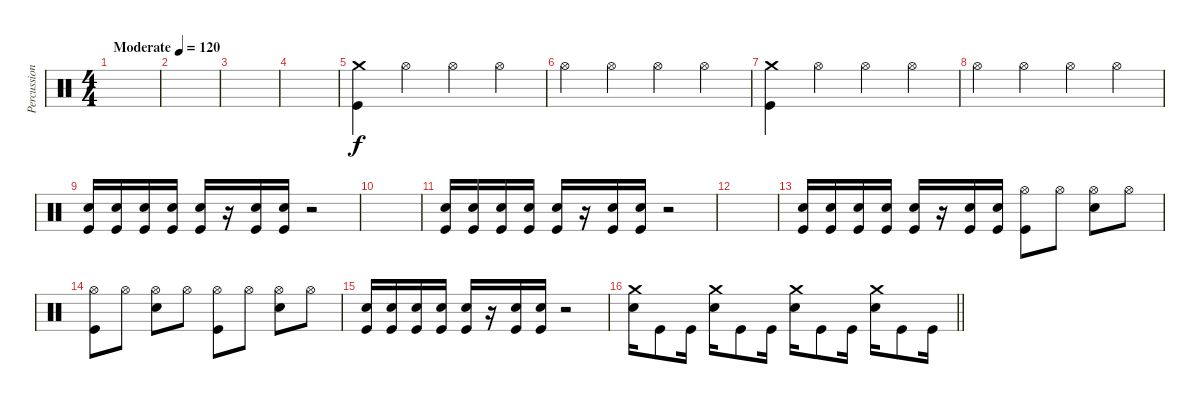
\track ("Percussion" "Percussion") {instrument percussion}
\staff {score}
\articulation defaults
\ts (4 4)
\tempo (120 "Moderate")
\clef neutral
\ks c
|
|
|
|
("Crash medium (hit)" "Kick (hit)").4 "Hi-Hat (open)".4 "Hi-Hat (open)".4 "Hi-Hat (open)".4 |
"Hi-Hat (open)".4 "Hi-Hat (open)".4 "Hi-Hat (open)".4 "Hi-Hat (open)".4 |
("Crash medium (hit)" "Kick (hit)").4 "Hi-Hat (open)".4 "Hi-Hat (open)".4 "Hi-Hat (open)".4 |
"Hi-Hat (open)".4 "Hi-Hat (open)".4 "Hi-Hat (open)".4 "Hi-Hat (open)".4 |
("Snare (hit) 2" "Kick (hit)").16 ("Snare (hit) 2" "Kick (hit)").16 ("Snare (hit) 2" "Kick (hit)").16 ("Snare (hit) 2" "Kick (hit)").16 ("Snare (hit) 2" "Kick (hit)").16 r.16 ("Snare (hit) 2" "Kick (hit)").16 ("Snare (hit) 2" "Kick (hit)").16 r.2 |
|
("Snare (hit) 2" "Kick (hit)").16 ("Snare (hit) 2" "Kick (hit)").16 ("Snare (hit) 2" "Kick (hit)").16 ("Snare (hit) 2" "Kick (hit)").16 ("Snare (hit) 2" "Kick (hit)").16 r.16 ("Snare (hit) 2" "Kick (hit)").16 ("Snare (hit) 2" "Kick (hit)").16 r.2 |
|
("Snare (hit) 2" "Kick (hit)").16 ("Snare (hit) 2" "Kick (hit)").16 ("Snare (hit) 2" "Kick (hit)").16 ("Snare (hit) 2" "Kick (hit)").16 ("Snare (hit) 2" "Kick (hit)").16 r.16 ("Snare (hit) 2" "Kick (hit)").16 ("Snare (hit) 2" "Kick (hit)").16 ("Hi-Hat (open)" "Kick (hit)").8 "Hi-Hat (open)".8 ("Hi-Hat (open)" "Snare (hit) 2").8 "Hi-Hat (open)".8 |
("Hi-Hat (open)" "Kick (hit)").8 "Hi-Hat (open)".8 ("Hi-Hat (open)" "Snare (hit) 2").8 "Hi-Hat (open)".8 ("Hi-Hat (open)" "Kick (hit)").8 "Hi-Hat (open)".8 ("Hi-Hat (open)" "Snare (hit) 2").8 "Hi-Hat (open)".8 |
("Snare (hit) 2" "Kick (hit)").16 ("Snare (hit) 2" "Kick (hit)").16 ("Snare (hit) 2" "Kick (hit)").16 ("Snare (hit) 2" "Kick (hit)").16 ("Snare (hit) 2" "Kick (hit)").16 r.16 ("Snare (hit) 2" "Kick (hit)").16 ("Snare (hit) 2" "Kick (hit)").16 r.2 |
\barLineRight lightlight
("Crash medium (hit)" "Snare (hit) 2").16 "Kick (hit)".8 "Kick (hit)".16 ("Crash medium (hit)" "Snare (hit) 2").16 "Kick (hit)".8 "Kick (hit)".16 ("Crash medium (hit)" "Snare (hit) 2").16 "Kick (hit)".8 "Kick (hit)".16 ("Crash medium (hit)" "Snare (hit) 2").16 "Kick (hit)".8 "Kick (hit)".16
